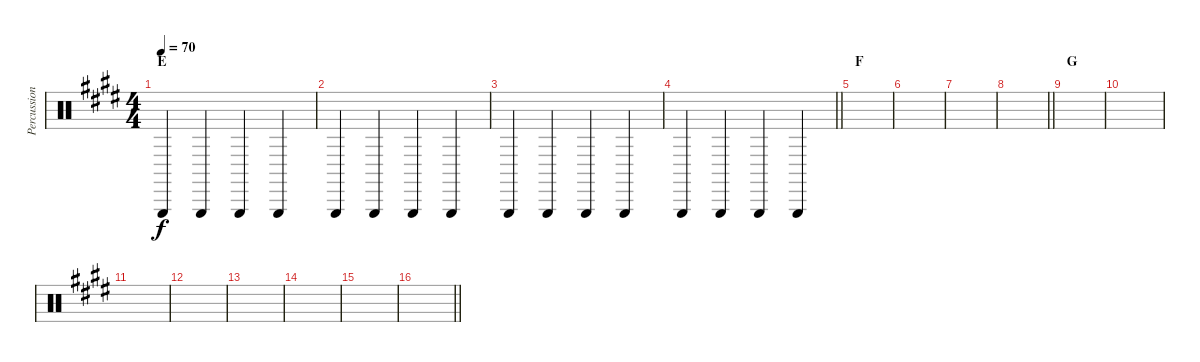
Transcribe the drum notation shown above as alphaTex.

\track ("Percussion" "Percussion") {instrument percussion}
\staff {score}
\articulation defaults
\ts (4 4)
\section ("" "E")
\tempo 70
\clef neutral
\ks e "Triangle (hit)".4{dy f} "Triangle (hit)".4 "Triangle (hit)".4 "Triangle (hit)".4
|
"Triangle (hit)".4 "Triangle (hit)".4 "Triangle (hit)".4 "Triangle (hit)".4 |
"Triangle (hit)".4 "Triangle (hit)".4 "Triangle (hit)".4 "Triangle (hit)".4 |
\barLineRight lightlight "Triangle (hit)".4 "Triangle (hit)".4 "Triangle (hit)".4 "Triangle (hit)".4
|
\section ("" "F")
|
|
|
\barLineRight lightlight
|
\section ("" "G")
|
|
|
|
|
|
|
\barLineRight lightlight
